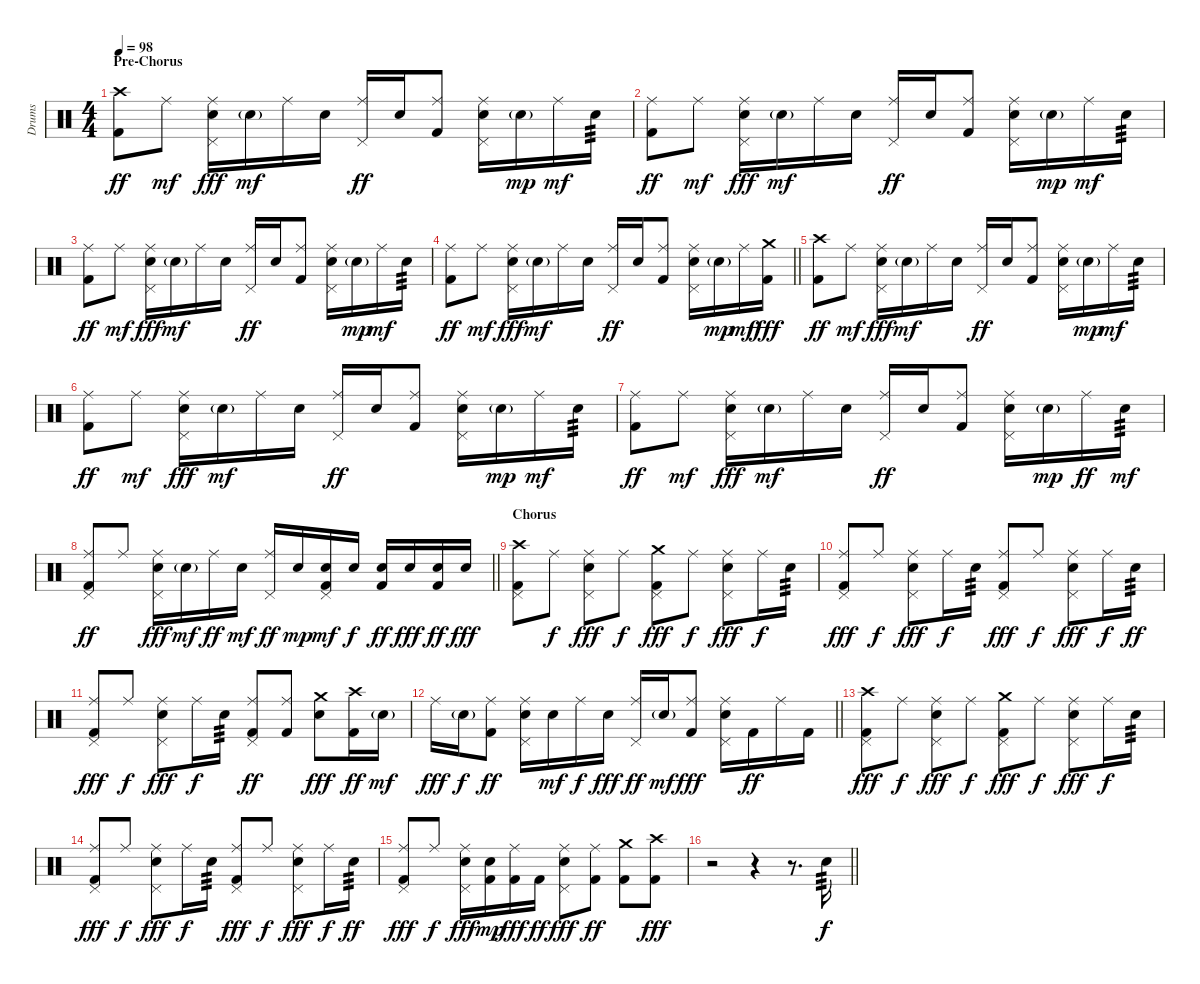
\track ("Drums" "Drums") {instrument percussion}
\staff {score}
\articulation defaults
\ts (4 4)
\section ("" "Pre-Chorus")
\tempo 98
\clef neutral
\ks c
("Crash high (hit)" "Kick (hit) 2").8{dy ff} "Ride (middle)".8{dy mf} ("Ride (middle)" "Pedal Hi-Hat (hit)" "Electric Snare (hit)").16{dy fff} "Electric Snare (hit)"{g}.16{dy mf} "Ride (middle)".16 "Electric Snare (hit)".16 ("Ride (middle)" "Pedal Hi-Hat (hit)").16{dy ff} "Electric Snare (hit)".16 ("Ride (middle)" "Kick (hit) 2").8 ("Ride (middle)" "Pedal Hi-Hat (hit)" "Electric Snare (hit)").16 "Electric Snare (hit)"{g}.16{dy mp} "Ride (middle)".16{dy mf} "Electric Snare (hit)".16{tp 3} |
("Ride (middle)" "Kick (hit) 2").8{dy ff} "Ride (middle)".8{dy mf} ("Ride (middle)" "Pedal Hi-Hat (hit)" "Electric Snare (hit)").16{dy fff} "Electric Snare (hit)"{g}.16{dy mf} "Ride (middle)".16 "Electric Snare (hit)".16 ("Ride (middle)" "Pedal Hi-Hat (hit)").16{dy ff} "Electric Snare (hit)".16 ("Ride (middle)" "Kick (hit) 2").8 ("Ride (middle)" "Pedal Hi-Hat (hit)" "Electric Snare (hit)").16 "Electric Snare (hit)"{g}.16{dy mp} "Ride (middle)".16{dy mf} "Electric Snare (hit)".16{tp 3} |
("Ride (middle)" "Kick (hit) 2").8{dy ff} "Ride (middle)".8{dy mf} ("Ride (middle)" "Pedal Hi-Hat (hit)" "Electric Snare (hit)").16{dy fff} "Electric Snare (hit)"{g}.16{dy mf} "Ride (middle)".16 "Electric Snare (hit)".16 ("Ride (middle)" "Pedal Hi-Hat (hit)").16{dy ff} "Electric Snare (hit)".16 ("Ride (middle)" "Kick (hit) 2").8 ("Ride (middle)" "Pedal Hi-Hat (hit)" "Electric Snare (hit)").16 "Electric Snare (hit)"{g}.16{dy mp} "Ride (middle)".16{dy mf} "Electric Snare (hit)".16{tp 3} |
\barLineRight lightlight
("Ride (middle)" "Kick (hit) 2").8{dy ff} "Ride (middle)".8{dy mf} ("Ride (middle)" "Pedal Hi-Hat (hit)" "Electric Snare (hit)").16{dy fff} "Electric Snare (hit)"{g}.16{dy mf} "Ride (middle)".16 "Electric Snare (hit)".16 ("Ride (middle)" "Pedal Hi-Hat (hit)").16{dy ff} "Electric Snare (hit)".16 ("Ride (middle)" "Kick (hit) 2").8 ("Ride (middle)" "Pedal Hi-Hat (hit)" "Electric Snare (hit)").16 "Electric Snare (hit)"{g}.16{dy mp} "Ride (middle)".16{dy mf} ("Crash medium (hit)" "Kick (hit) 2").16{dy fff} |
("Crash high (hit)" "Kick (hit) 2").8{dy ff} "Ride (middle)".8{dy mf} ("Ride (middle)" "Pedal Hi-Hat (hit)" "Electric Snare (hit)").16{dy fff} "Electric Snare (hit)"{g}.16{dy mf} "Ride (middle)".16 "Electric Snare (hit)".16 ("Ride (middle)" "Pedal Hi-Hat (hit)").16{dy ff} "Electric Snare (hit)".16 ("Ride (middle)" "Kick (hit) 2").8 ("Ride (middle)" "Pedal Hi-Hat (hit)" "Electric Snare (hit)").16 "Electric Snare (hit)"{g}.16{dy mp} "Ride (middle)".16{dy mf} "Electric Snare (hit)".16{tp 3} |
("Ride (middle)" "Kick (hit) 2").8{dy ff} "Ride (middle)".8{dy mf} ("Ride (middle)" "Pedal Hi-Hat (hit)" "Electric Snare (hit)").16{dy fff} "Electric Snare (hit)"{g}.16{dy mf} "Ride (middle)".16 "Electric Snare (hit)".16 ("Ride (middle)" "Pedal Hi-Hat (hit)").16{dy ff} "Electric Snare (hit)".16 ("Ride (middle)" "Kick (hit) 2").8 ("Ride (middle)" "Pedal Hi-Hat (hit)" "Electric Snare (hit)").16 "Electric Snare (hit)"{g}.16{dy mp} "Ride (middle)".16{dy mf} "Electric Snare (hit)".16{tp 3} |
("Ride (middle)" "Kick (hit) 2").8{dy ff} "Ride (middle)".8{dy mf} ("Ride (middle)" "Pedal Hi-Hat (hit)" "Electric Snare (hit)").16{dy fff} "Electric Snare (hit)"{g}.16{dy mf} "Ride (middle)".16 "Electric Snare (hit)".16 ("Ride (middle)" "Pedal Hi-Hat (hit)").16{dy ff} "Electric Snare (hit)".16 ("Ride (middle)" "Kick (hit) 2").8 ("Ride (middle)" "Pedal Hi-Hat (hit)" "Electric Snare (hit)").16 "Electric Snare (hit)"{g}.16{dy mp} "Ride (middle)".16{dy ff} "Electric Snare (hit)".16{tp 3 dy mf} |
\barLineRight lightlight
("Ride (middle)" "Pedal Hi-Hat (hit)" "Kick (hit) 2").8{dy ff} "Ride (middle)".8 ("Ride (middle)" "Pedal Hi-Hat (hit)" "Electric Snare (hit)").16{dy fff} "Electric Snare (hit)"{g}.16{dy mf} "Ride (middle)".16{dy ff} "Electric Snare (hit)".16{dy mf} ("Ride (middle)" "Pedal Hi-Hat (hit)").16{dy ff} "Electric Snare (hit)".16{dy mp} ("Pedal Hi-Hat (hit)" "Electric Snare (hit)" "Kick (hit) 2").16{dy mf} "Electric Snare (hit)".16{dy f} ("Electric Snare (hit)" "Kick (hit) 2").16{dy ff} "Electric Snare (hit)".16{dy fff} ("Electric Snare (hit)" "Kick (hit) 2").16{dy ff} "Electric Snare (hit)".16{dy fff} |
\section ("" "Chorus")
("Crash high (hit)" "Pedal Hi-Hat (hit)" "Kick (hit) 2").8 "Ride (middle)".8{dy f} ("Ride (middle)" "Pedal Hi-Hat (hit)" "Electric Snare (hit)").8{dy fff} "Ride (middle)".8{dy f} ("Crash medium (hit)" "Pedal Hi-Hat (hit)" "Kick (hit) 2").8{dy fff} "Ride (middle)".8{dy f} ("Ride (middle)" "Pedal Hi-Hat (hit)" "Electric Snare (hit)").8{dy fff} "Ride (middle)".16{dy f} "Electric Snare (hit)".16{tp 3} |
("Ride (middle)" "Pedal Hi-Hat (hit)" "Kick (hit) 2").8{dy fff} "Ride (middle)".8{dy f} ("Ride (middle)" "Pedal Hi-Hat (hit)" "Electric Snare (hit)").8{dy fff} "Ride (middle)".16{dy f} "Electric Snare (hit)".16{tp 3} ("Ride (middle)" "Pedal Hi-Hat (hit)" "Kick (hit) 2").8{dy fff} "Ride (middle)".8{dy f} ("Ride (middle)" "Pedal Hi-Hat (hit)" "Electric Snare (hit)").8{dy fff} "Ride (middle)".16{dy f} "Electric Snare (hit)".16{tp 3 dy ff} |
("Ride (middle)" "Pedal Hi-Hat (hit)" "Kick (hit) 2").8{dy fff} "Ride (middle)".8{dy f} ("Ride (middle)" "Pedal Hi-Hat (hit)" "Electric Snare (hit)").8{dy fff} "Ride (middle)".16{dy f} "Electric Snare (hit)".16{tp 3} ("Ride (middle)" "Pedal Hi-Hat (hit)" "Kick (hit) 2").8{dy ff} ("Ride (middle)" "Kick (hit) 2").8 ("Crash medium (hit)" "Electric Snare (hit)").8{dy fff} ("Crash high (hit)" "Kick (hit) 2").16{dy ff} "Electric Snare (hit)"{g}.16{dy mf} |
\barLineRight lightlight "Ride (middle)".16{dy fff} "Electric Snare (hit)"{g}.16{dy f}
("Ride (middle)" "Kick (hit) 2").8{dy ff} ("Ride (middle)" "Pedal Hi-Hat (hit)" "Electric Snare (hit)").16 "Electric Snare (hit)".16{dy mf} "Ride (middle)".16{dy f} "Electric Snare (hit)".16{dy fff} ("Ride (middle)" "Pedal Hi-Hat (hit)").16{dy ff} "Electric Snare (hit)"{g}.16{dy mf} ("Ride (middle)" "Kick (hit) 2").8{dy fff} ("Ride (middle)" "Pedal Hi-Hat (hit)" "Electric Snare (hit)").16 "Kick (hit) 2".16{dy ff} "Ride (middle)".16 "Kick (hit) 2".16 |
("Crash high (hit)" "Pedal Hi-Hat (hit)" "Kick (hit) 2").8{dy fff} "Ride (middle)".8{dy f} ("Ride (middle)" "Pedal Hi-Hat (hit)" "Electric Snare (hit)").8{dy fff} "Ride (middle)".8{dy f} ("Crash medium (hit)" "Pedal Hi-Hat (hit)" "Kick (hit) 2").8{dy fff} "Ride (middle)".8{dy f} ("Ride (middle)" "Pedal Hi-Hat (hit)" "Electric Snare (hit)").8{dy fff} "Ride (middle)".16{dy f} "Electric Snare (hit)".16{tp 3} |
("Ride (middle)" "Pedal Hi-Hat (hit)" "Kick (hit) 2").8{dy fff} "Ride (middle)".8{dy f} ("Ride (middle)" "Pedal Hi-Hat (hit)" "Electric Snare (hit)").8{dy fff} "Ride (middle)".16{dy f} "Electric Snare (hit)".16{tp 3} ("Ride (middle)" "Pedal Hi-Hat (hit)" "Kick (hit) 2").8{dy fff} "Ride (middle)".8{dy f} ("Ride (middle)" "Pedal Hi-Hat (hit)" "Electric Snare (hit)").8{dy fff} "Ride (middle)".16{dy f} "Electric Snare (hit)".16{tp 3 dy ff} |
("Ride (middle)" "Pedal Hi-Hat (hit)" "Kick (hit) 2").8{dy fff} "Ride (middle)".8{dy f} ("Ride (middle)" "Pedal Hi-Hat (hit)" "Electric Snare (hit)").16{dy fff} ("Electric Snare (hit)" "Kick (hit) 2").16{dy mp} ("Ride (middle)" "Kick (hit) 2").16{dy fff} "Kick (hit) 2".16{dy ff} ("Ride (middle)" "Pedal Hi-Hat (hit)" "Electric Snare (hit)").8{dy fff} ("Ride (middle)" "Kick (hit) 2").8{dy ff} ("Crash medium (hit)" "Kick (hit) 2").8 ("Crash high (hit)" "Kick (hit) 2").8{dy fff} |
\barLineRight lightlight
r.2 r.4 r.8{d} "Electric Snare (hit)".16{tp 3 dy f}
